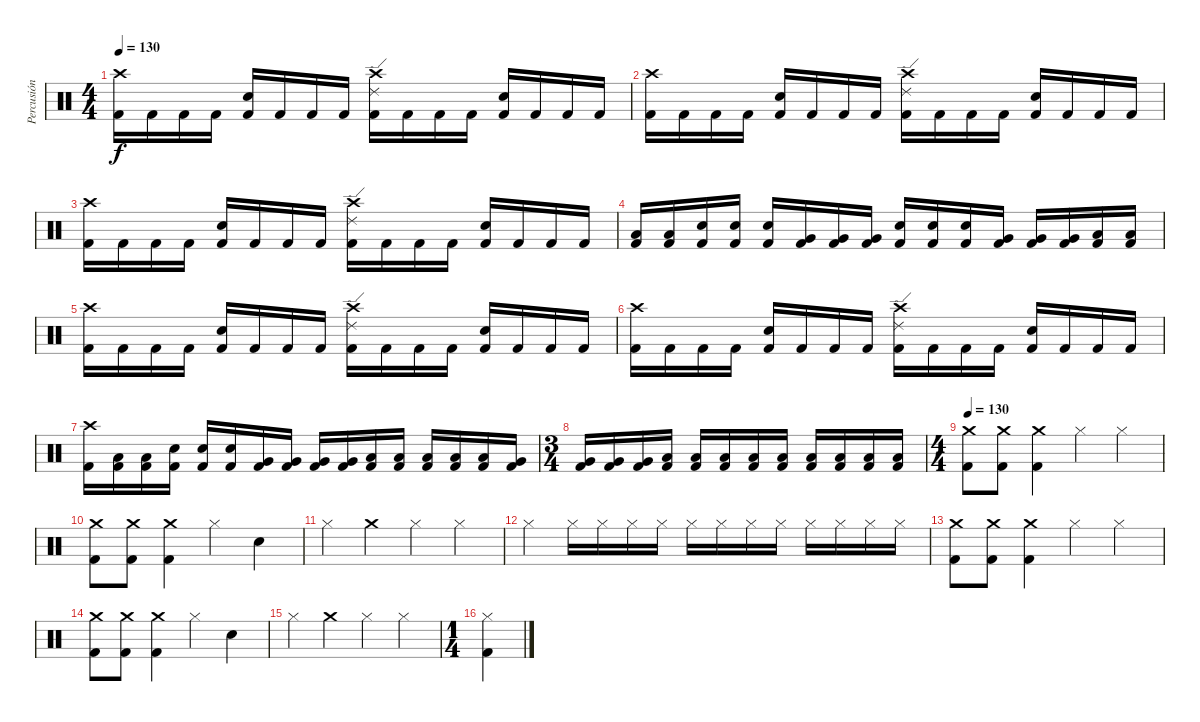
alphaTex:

\track ("Percusión" "Percusión") {instrument percussion}
\staff {score}
\articulation defaults
\ts (4 4)
\tempo 130
\clef neutral
\ks c
("Crash high (hit)" "Kick (hit) 2").16{dy f} "Kick (hit) 2".16 "Kick (hit) 2".16 "Kick (hit) 2".16 ("Snare (hit) 2" "Kick (hit) 2").16 "Kick (hit) 2".16 "Kick (hit) 2".16 "Kick (hit) 2".16 ("Ride (edge) 2" "Crash high (hit)" "Kick (hit) 2").16 "Kick (hit) 2".16 "Kick (hit) 2".16 "Kick (hit) 2".16 ("Snare (hit) 2" "Kick (hit) 2").16 "Kick (hit) 2".16 "Kick (hit) 2".16 "Kick (hit) 2".16 |
("Crash high (hit)" "Kick (hit) 2").16 "Kick (hit) 2".16 "Kick (hit) 2".16 "Kick (hit) 2".16 ("Snare (hit) 2" "Kick (hit) 2").16 "Kick (hit) 2".16 "Kick (hit) 2".16 "Kick (hit) 2".16 ("Ride (edge) 2" "Crash high (hit)" "Kick (hit) 2").16 "Kick (hit) 2".16 "Kick (hit) 2".16 "Kick (hit) 2".16 ("Snare (hit) 2" "Kick (hit) 2").16 "Kick (hit) 2".16 "Kick (hit) 2".16 "Kick (hit) 2".16 |
("Crash high (hit)" "Kick (hit) 2").16 "Kick (hit) 2".16 "Kick (hit) 2".16 "Kick (hit) 2".16 ("Snare (hit) 2" "Kick (hit) 2").16 "Kick (hit) 2".16 "Kick (hit) 2".16 "Kick (hit) 2".16 ("Ride (edge) 2" "Crash high (hit)" "Kick (hit) 2").16 "Kick (hit) 2".16 "Kick (hit) 2".16 "Kick (hit) 2".16 ("Snare (hit) 2" "Kick (hit) 2").16 "Kick (hit) 2".16 "Kick (hit) 2".16 "Kick (hit) 2".16 |
("Low Floor Tom (hit)" "Kick (hit) 2").16 ("Low Floor Tom (hit)" "Kick (hit) 2").16 ("Snare (hit) 2" "Kick (hit) 2").16 ("Snare (hit) 2" "Kick (hit) 2").16 ("Snare (hit) 2" "Kick (hit) 2").16 ("Very Low Tom (hit)" "Kick (hit) 2").16 ("Very Low Tom (hit)" "Kick (hit) 2").16 ("Very Low Tom (hit)" "Kick (hit) 2").16 ("Snare (hit) 2" "Kick (hit) 2").16 ("Snare (hit) 2" "Kick (hit) 2").16 ("Snare (hit) 2" "Kick (hit) 2").16 ("Very Low Tom (hit)" "Kick (hit) 2").16 ("Very Low Tom (hit)" "Kick (hit) 2").16 ("Very Low Tom (hit)" "Kick (hit) 2").16 ("Low Floor Tom (hit)" "Kick (hit) 2").16 ("Low Floor Tom (hit)" "Kick (hit) 2").16 |
("Crash high (hit)" "Kick (hit) 2").16 "Kick (hit) 2".16 "Kick (hit) 2".16 "Kick (hit) 2".16 ("Snare (hit) 2" "Kick (hit) 2").16 "Kick (hit) 2".16 "Kick (hit) 2".16 "Kick (hit) 2".16 ("Ride (edge) 2" "Crash high (hit)" "Kick (hit) 2").16 "Kick (hit) 2".16 "Kick (hit) 2".16 "Kick (hit) 2".16 ("Snare (hit) 2" "Kick (hit) 2").16 "Kick (hit) 2".16 "Kick (hit) 2".16 "Kick (hit) 2".16 |
("Crash high (hit)" "Kick (hit) 2").16 "Kick (hit) 2".16 "Kick (hit) 2".16 "Kick (hit) 2".16 ("Snare (hit) 2" "Kick (hit) 2").16 "Kick (hit) 2".16 "Kick (hit) 2".16 "Kick (hit) 2".16 ("Ride (edge) 2" "Crash high (hit)" "Kick (hit) 2").16 "Kick (hit) 2".16 "Kick (hit) 2".16 "Kick (hit) 2".16 ("Snare (hit) 2" "Kick (hit) 2").16 "Kick (hit) 2".16 "Kick (hit) 2".16 "Kick (hit) 2".16 |
("Crash high (hit)" "Kick (hit) 2").16 ("Low Floor Tom (hit)" "Kick (hit) 2").16 ("Low Floor Tom (hit)" "Kick (hit) 2").16 ("Snare (hit) 2" "Kick (hit) 2").16 ("Snare (hit) 2" "Kick (hit) 2").16 ("Snare (hit) 2" "Kick (hit) 2").16 ("Very Low Tom (hit)" "Kick (hit) 2").16 ("Very Low Tom (hit)" "Kick (hit) 2").16 ("Very Low Tom (hit)" "Kick (hit) 2").16 ("Very Low Tom (hit)" "Kick (hit) 2").16 ("Low Tom (hit)" "Kick (hit) 2").16 ("Low Tom (hit)" "Kick (hit) 2").16 ("Low Tom (hit)" "Kick (hit) 2").16 ("Low Tom (hit)" "Kick (hit) 2").16 ("Low Tom (hit)" "Kick (hit) 2").16 ("Very Low Tom (hit)" "Kick (hit) 2").16 |
\ts (3 4)
("Very Low Tom (hit)" "Kick (hit) 2").16 ("Very Low Tom (hit)" "Kick (hit) 2").16 ("Very Low Tom (hit)" "Kick (hit) 2").16 ("Low Floor Tom (hit)" "Kick (hit) 2").16 ("Low Floor Tom (hit)" "Kick (hit) 2").16 ("Low Floor Tom (hit)" "Kick (hit) 2").16 ("Low Floor Tom (hit)" "Kick (hit) 2").16 ("Low Floor Tom (hit)" "Kick (hit) 2").16 ("Low Floor Tom (hit)" "Kick (hit) 2").16 ("Low Floor Tom (hit)" "Kick (hit) 2").16 ("Low Floor Tom (hit)" "Kick (hit) 2").16 ("Low Floor Tom (hit)" "Kick (hit) 2").16 |
\ts (4 4)
\tempo 130
("Crash medium (hit)" "Kick (hit) 2").8 ("Crash medium (hit)" "Kick (hit) 2").8 ("Crash medium (hit)" "Kick (hit) 2").4 "Hi-Hat (closed)".4 "Hi-Hat (closed)".4 |
("Crash medium (hit)" "Kick (hit) 2").8 ("Crash medium (hit)" "Kick (hit) 2").8 ("Crash medium (hit)" "Kick (hit) 2").4 "Hi-Hat (closed)".4 "Snare (hit) 2".4 |
"Hi-Hat (closed)".4 "Crash medium (hit)".4 "Hi-Hat (closed)".4 "Hi-Hat (closed)".4 |
"Hi-Hat (closed)".4 "Hi-Hat (closed)".16 "Hi-Hat (closed)".16 "Hi-Hat (closed)".16 "Hi-Hat (closed)".16 "Hi-Hat (closed)".16 "Hi-Hat (closed)".16 "Hi-Hat (closed)".16 "Hi-Hat (closed)".16 "Hi-Hat (closed)".16 "Hi-Hat (closed)".16 "Hi-Hat (closed)".16 "Hi-Hat (closed)".16 |
("Crash medium (hit)" "Kick (hit) 2").8 ("Crash medium (hit)" "Kick (hit) 2").8 ("Crash medium (hit)" "Kick (hit) 2").4 "Hi-Hat (closed)".4 "Hi-Hat (closed)".4 |
("Crash medium (hit)" "Kick (hit) 2").8 ("Crash medium (hit)" "Kick (hit) 2").8 ("Crash medium (hit)" "Kick (hit) 2").4 "Hi-Hat (closed)".4 "Snare (hit) 2".4 |
"Hi-Hat (closed)".4 "Crash medium (hit)".4 "Hi-Hat (closed)".4 "Hi-Hat (closed)".4 |
\ts (1 4)
("Hi-Hat (closed)" "Kick (hit) 2").4
